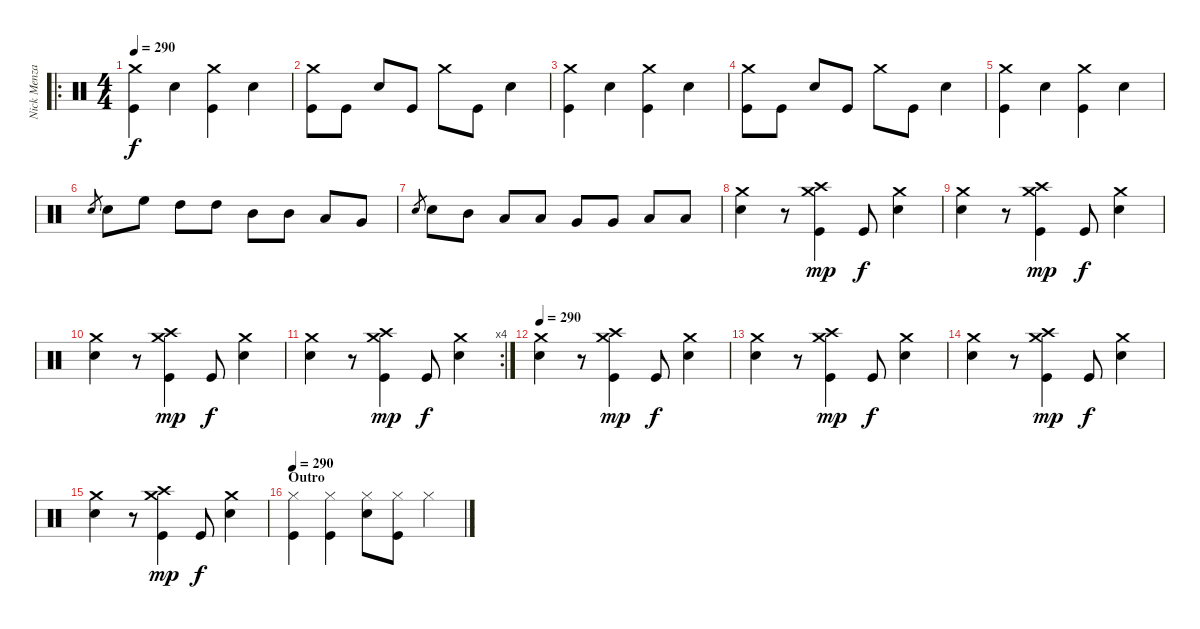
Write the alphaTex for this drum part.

\track ("Nick Menza" "Nick Menza") {instrument percussion}
\staff {score}
\articulation defaults
\ro
\ts (4 4)
\tempo 290
\clef neutral
\ks c
("Crash medium (hit)" "Kick (hit)").4{dy f} "Snare (hit) 2".4 ("Crash medium (hit)" "Kick (hit)").4 "Snare (hit) 2".4 |
("Crash medium (hit)" "Kick (hit)").8 "Kick (hit)".8 "Snare (hit) 2".8 "Kick (hit)".8 "Crash medium (hit)".8 "Kick (hit)".8 "Snare (hit) 2".4 |
("Crash medium (hit)" "Kick (hit)").4 "Snare (hit) 2".4 ("Crash medium (hit)" "Kick (hit)").4 "Snare (hit) 2".4 |
("Crash medium (hit)" "Kick (hit)").8 "Kick (hit)".8 "Snare (hit) 2".8 "Kick (hit)".8 "Crash medium (hit)".8 "Kick (hit)".8 "Snare (hit) 2".4 |
("Crash medium (hit)" "Kick (hit)").4 "Snare (hit) 2".4 ("Crash medium (hit)" "Kick (hit)").4 "Snare (hit) 2".4 |
"Snare (hit) 2".8{gr} "Snare (hit) 2".8 "High Floor Tom (hit)".8 "High Tom (hit)".8 "High Tom (hit)".8 "Mid Tom (hit)".8 "Mid Tom (hit)".8 "Low Tom (hit)".8 "Very Low Tom (hit)".8 |
"Snare (hit) 2".8{gr} "Snare (hit) 2".8 "Mid Tom (hit)".8 "Low Tom (hit)".8 "Low Tom (hit)".8 "Very Low Tom (hit)".8 "Very Low Tom (hit)".8 "Low Floor Tom (hit)".8 "Low Floor Tom (hit)".8 |
("Crash medium (hit)" "Snare (hit) 2").4 r.8 ("Crash high (hit)" "Crash medium (hit)" "Kick (hit)").4{dy mp} "Kick (hit)".8{dy f} ("Crash medium (hit)" "Snare (hit) 2").4 |
("Crash medium (hit)" "Snare (hit) 2").4 r.8 ("Crash high (hit)" "Crash medium (hit)" "Kick (hit)").4{dy mp} "Kick (hit)".8{dy f} ("Crash medium (hit)" "Snare (hit) 2").4 |
("Crash medium (hit)" "Snare (hit) 2").4 r.8 ("Crash high (hit)" "Crash medium (hit)" "Kick (hit)").4{dy mp} "Kick (hit)".8{dy f} ("Crash medium (hit)" "Snare (hit) 2").4 |
\rc 4
("Crash medium (hit)" "Snare (hit) 2").4 r.8 ("Crash high (hit)" "Crash medium (hit)" "Kick (hit)").4{dy mp} "Kick (hit)".8{dy f} ("Crash medium (hit)" "Snare (hit) 2").4 |
\tempo 290
("Crash medium (hit)" "Snare (hit) 2").4 r.8 ("Crash high (hit)" "Crash medium (hit)" "Kick (hit)").4{dy mp} "Kick (hit)".8{dy f} ("Crash medium (hit)" "Snare (hit) 2").4 |
("Crash medium (hit)" "Snare (hit) 2").4 r.8 ("Crash high (hit)" "Crash medium (hit)" "Kick (hit)").4{dy mp} "Kick (hit)".8{dy f} ("Crash medium (hit)" "Snare (hit) 2").4 |
("Crash medium (hit)" "Snare (hit) 2").4 r.8 ("Crash high (hit)" "Crash medium (hit)" "Kick (hit)").4{dy mp} "Kick (hit)".8{dy f} ("Crash medium (hit)" "Snare (hit) 2").4 |
("Crash medium (hit)" "Snare (hit) 2").4 r.8 ("Crash high (hit)" "Crash medium (hit)" "Kick (hit)").4{dy mp} "Kick (hit)".8{dy f} ("Crash medium (hit)" "Snare (hit) 2").4 |
\section ("" "Outro")
\tempo 290
("Hi-Hat (closed)" "Kick (hit)").4 ("Hi-Hat (closed)" "Kick (hit)").4 ("Hi-Hat (closed)" "Snare (hit) 2").8 ("Hi-Hat (closed)" "Kick (hit)").8 "Hi-Hat (closed)".4
